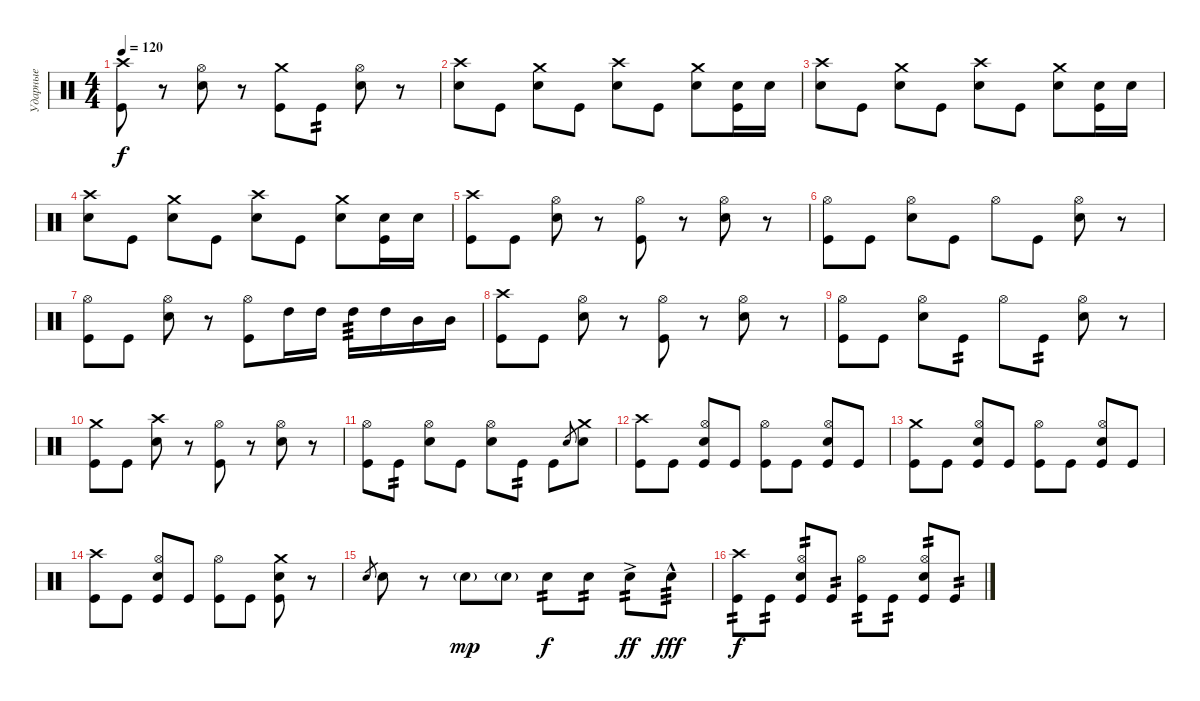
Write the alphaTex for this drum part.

\track ("Ударные" "Ударные") {instrument percussion}
\staff {score}
\articulation defaults
\ts (4 4)
\tempo 120
\clef neutral
\ks c
("Crash high (hit)" "Kick (hit)").8{dy f} r.8 ("Hi-Hat (open)" "Snare (hit) 2").8 r.8 ("Crash medium (hit)" "Kick (hit)").8 "Kick (hit)".8{tp 2} ("Hi-Hat (open)" "Snare (hit) 2").8 r.8 |
("Crash high (hit)" "Snare (hit) 2").8 "Kick (hit)".8 ("Crash medium (hit)" "Snare (hit) 2").8 "Kick (hit)".8 ("Crash high (hit)" "Snare (hit) 2").8 "Kick (hit)".8 ("Crash medium (hit)" "Snare (hit) 2").8 ("Snare (hit) 2" "Kick (hit)").16 "Snare (hit) 2".16 |
("Crash high (hit)" "Snare (hit) 2").8 "Kick (hit)".8 ("Crash medium (hit)" "Snare (hit) 2").8 "Kick (hit)".8 ("Crash high (hit)" "Snare (hit) 2").8 "Kick (hit)".8 ("Crash medium (hit)" "Snare (hit) 2").8 ("Snare (hit) 2" "Kick (hit)").16 "Snare (hit) 2".16 |
("Crash high (hit)" "Snare (hit) 2").8 "Kick (hit)".8 ("Crash medium (hit)" "Snare (hit) 2").8 "Kick (hit)".8 ("Crash high (hit)" "Snare (hit) 2").8 "Kick (hit)".8 ("Crash medium (hit)" "Snare (hit) 2").8 ("Snare (hit) 2" "Kick (hit)").16 "Snare (hit) 2".16 |
("Crash high (hit)" "Kick (hit)").8 "Kick (hit)".8 ("Hi-Hat (open)" "Snare (hit) 2").8 r.8 ("Hi-Hat (open)" "Kick (hit)").8 r.8 ("Hi-Hat (open)" "Snare (hit) 2").8 r.8 |
("Hi-Hat (open)" "Kick (hit)").8 "Kick (hit)".8 ("Hi-Hat (open)" "Snare (hit) 2").8 "Kick (hit)".8 "Hi-Hat (open)".8 "Kick (hit)".8 ("Hi-Hat (open)" "Snare (hit) 2").8 r.8 |
("Hi-Hat (open)" "Kick (hit)").8 "Kick (hit)".8 ("Hi-Hat (open)" "Snare (hit) 2").8 r.8 ("Hi-Hat (open)" "Kick (hit)").8 "High Tom (hit)".16 "High Tom (hit)".16 "High Tom (hit)".16{tp 3} "High Tom (hit)".16 "Mid Tom (hit)".16 "Mid Tom (hit)".16 |
("Crash high (hit)" "Kick (hit)").8 "Kick (hit)".8 ("Hi-Hat (open)" "Snare (hit) 2").8 r.8 ("Hi-Hat (open)" "Kick (hit)").8 r.8 ("Hi-Hat (open)" "Snare (hit) 2").8 r.8 |
("Hi-Hat (open)" "Kick (hit)").8 "Kick (hit)".8 ("Hi-Hat (open)" "Snare (hit) 2").8 "Kick (hit)".8{tp 2} "Hi-Hat (open)".8 "Kick (hit)".8{tp 2} ("Hi-Hat (open)" "Snare (hit) 2").8 r.8 |
("Crash medium (hit)" "Kick (hit)").8 "Kick (hit)".8 ("Crash high (hit)" "Snare (hit) 2").8 r.8 ("Hi-Hat (open)" "Kick (hit)").8 r.8 ("Hi-Hat (open)" "Snare (hit) 2").8 r.8 |
("Hi-Hat (open)" "Kick (hit)").8 "Kick (hit)".8{tp 2} ("Hi-Hat (open)" "Snare (hit) 2").8 "Kick (hit)".8 ("Hi-Hat (open)" "Snare (hit) 2").8 "Kick (hit)".8{tp 2} "Kick (hit)".8 "Snare (hit) 2".8{gr} ("Crash medium (hit)" "Snare (hit) 2").8 |
("Crash high (hit)" "Kick (hit)").8 "Kick (hit)".8 ("Hi-Hat (open)" "Snare (hit) 2" "Kick (hit)").8 "Kick (hit)".8 ("Hi-Hat (open)" "Kick (hit)").8 "Kick (hit)".8 ("Hi-Hat (open)" "Snare (hit) 2" "Kick (hit)").8 "Kick (hit)".8 |
("Crash medium (hit)" "Kick (hit)").8 "Kick (hit)".8 ("Hi-Hat (open)" "Snare (hit) 2" "Kick (hit)").8 "Kick (hit)".8 ("Hi-Hat (open)" "Kick (hit)").8 "Kick (hit)".8 ("Hi-Hat (open)" "Snare (hit) 2" "Kick (hit)").8 "Kick (hit)".8 |
("Crash high (hit)" "Kick (hit)").8 "Kick (hit)".8 ("Hi-Hat (open)" "Snare (hit) 2" "Kick (hit)").8 "Kick (hit)".8 ("Hi-Hat (open)" "Kick (hit)").8 "Kick (hit)".8 ("Crash medium (hit)" "Snare (hit) 2" "Kick (hit)").8 r.8 |
"Snare (hit) 2".8{gr} "Snare (hit) 2".8 r.8 "Snare (hit) 2"{g}.8{dy mp} "Snare (hit) 2"{g}.8 "Snare (hit) 2".8{tp 2 dy f} "Snare (hit) 2".8{tp 2} "Snare (hit) 2"{ac}.8{tp 2 dy ff} "Snare (hit) 2"{hac}.8{tp 3 dy fff} |
("Crash high (hit)" "Kick (hit)").8{tp 2 dy f} "Kick (hit)".8{tp 2} ("Hi-Hat (open)" "Snare (hit) 2" "Kick (hit)").8{tp 2} "Kick (hit)".8{tp 2} ("Hi-Hat (open)" "Kick (hit)").8{tp 2} "Kick (hit)".8{tp 2} ("Hi-Hat (open)" "Snare (hit) 2" "Kick (hit)").8{tp 2} "Kick (hit)".8{tp 2}
